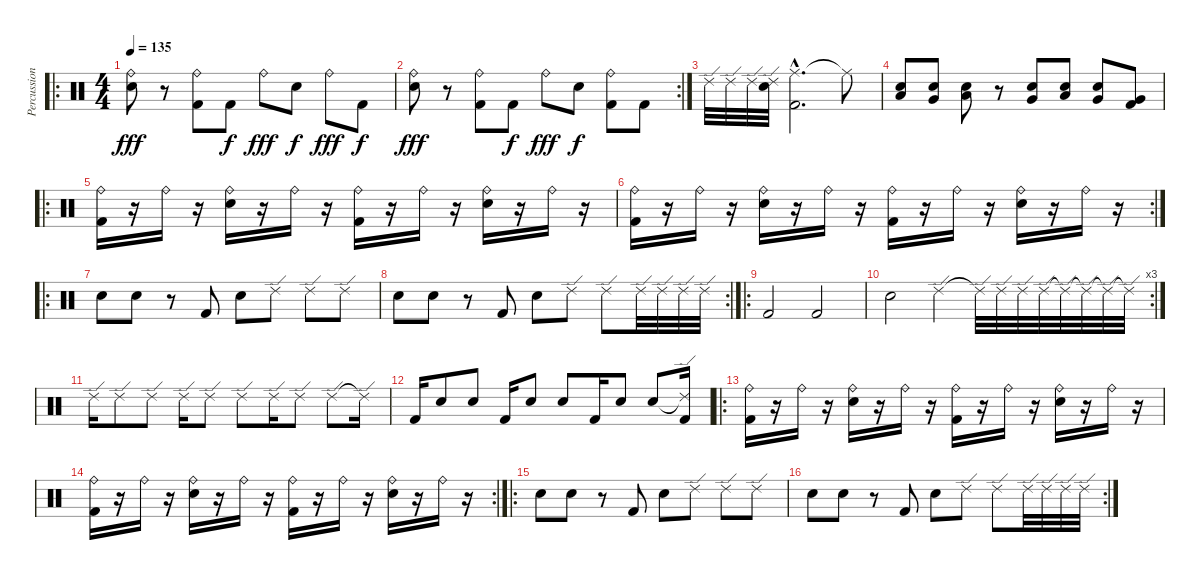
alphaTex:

\track ("Percussion" "Percussion") {instrument percussion}
\staff {score}
\articulation defaults
\ro
\ts (4 4)
\tempo 135
\clef neutral
\ks c
("Ride (bell)" "Snare (hit) 2").8{dy fff} r.8 ("Ride (bell)" "Kick (hit) 2").8 "Kick (hit) 2".8{dy f} "Ride (bell)".8{dy fff} "Snare (hit) 2".8{dy f} "Ride (bell)".8{dy fff} "Kick (hit) 2".8{dy f} |
\rc 2
("Ride (bell)" "Snare (hit) 2").8{dy fff} r.8 ("Ride (bell)" "Kick (hit) 2").8 "Kick (hit) 2".8{dy f} "Ride (bell)".8{dy fff} "Snare (hit) 2".8{dy f} ("Ride (bell)" "Kick (hit) 2").8 "Kick (hit) 2".8 |
"Ride (edge) 2".32 "Ride (edge) 2".32 "Ride (edge) 2".32 ("Ride (edge) 2" "Snare (hit) 2").32 ("Ride (middle)"{hac} "Kick (hit) 2"{hac}).2{d} "Ride (middle)"{t}.8 |
("Low Floor Tom (hit)" "Snare (hit) 2").8 ("Very Low Tom (hit)" "Snare (hit) 2").8 ("Low Floor Tom (hit)" "Snare (hit) 2").8 r.8 ("Very Low Tom (hit)" "Snare (hit) 2").8 ("Low Floor Tom (hit)" "Snare (hit) 2").8 ("Very Low Tom (hit)" "Snare (hit) 2").8 ("Very Low Tom (hit)" "Kick (hit) 2").8 |
\ro
("Ride (bell)" "Kick (hit) 2").16 r.16 "Ride (bell)".16 r.16 ("Ride (bell)" "Snare (hit) 2").16 r.16 "Ride (bell)".16 r.16 ("Ride (bell)" "Kick (hit) 2").16 r.16 "Ride (bell)".16 r.16 ("Ride (bell)" "Snare (hit) 2").16 r.16 "Ride (bell)".16 r.16 |
\rc 2
("Ride (bell)" "Kick (hit) 2").16 r.16 "Ride (bell)".16 r.16 ("Ride (bell)" "Snare (hit) 2").16 r.16 "Ride (bell)".16 r.16 ("Ride (bell)" "Kick (hit) 2").16 r.16 "Ride (bell)".16 r.16 ("Ride (bell)" "Snare (hit) 2").16 r.16 "Ride (bell)".16 r.16 |
\ro "Snare (hit) 2".8 "Snare (hit) 2".8
r.8 "Kick (hit) 2".8 "Snare (hit) 2".8 "Ride (edge) 2".8 "Ride (edge) 2".8 "Ride (edge) 2".8 |
\rc 2 "Snare (hit) 2".8 "Snare (hit) 2".8
r.8 "Kick (hit) 2".8 "Snare (hit) 2".8 "Ride (edge) 2".8 "Ride (edge) 2".8 "Ride (edge) 2".32 "Ride (edge) 2".32 "Ride (edge) 2".32 "Ride (edge) 2".32 |
\ro "Kick (hit) 2".2 "Kick (hit) 2".2
|
\rc 3 "Snare (hit) 2".2 "Ride (edge) 2".4 "Ride (edge) 2"{t}.32 "Ride (edge) 2".32 "Ride (edge) 2".32 "Ride (edge) 2".32 "Ride (edge) 2"{t}.32 "Ride (edge) 2"{t}.32 "Ride (edge) 2"{t}.32 "Ride (edge) 2"{t}.32
|
"Ride (edge) 2".16 "Ride (edge) 2".8 "Ride (edge) 2".8 "Ride (edge) 2".16 "Ride (edge) 2".8 "Ride (edge) 2".8 "Ride (edge) 2".16 "Ride (edge) 2".8 "Ride (edge) 2".8 "Ride (edge) 2"{t}.16 |
"Kick (hit) 2".16 "Snare (hit) 2".8 "Snare (hit) 2".8 "Kick (hit) 2".16 "Snare (hit) 2".8 "Snare (hit) 2".8 "Kick (hit) 2".16 "Snare (hit) 2".8 "Snare (hit) 2".8 ("Ride (edge) 2"{t} "Kick (hit) 2").16 |
\ro
("Ride (bell)" "Kick (hit) 2").16 r.16 "Ride (bell)".16 r.16 ("Ride (bell)" "Snare (hit) 2").16 r.16 "Ride (bell)".16 r.16 ("Ride (bell)" "Kick (hit) 2").16 r.16 "Ride (bell)".16 r.16 ("Ride (bell)" "Snare (hit) 2").16 r.16 "Ride (bell)".16 r.16 |
\rc 2
("Ride (bell)" "Kick (hit) 2").16 r.16 "Ride (bell)".16 r.16 ("Ride (bell)" "Snare (hit) 2").16 r.16 "Ride (bell)".16 r.16 ("Ride (bell)" "Kick (hit) 2").16 r.16 "Ride (bell)".16 r.16 ("Ride (bell)" "Snare (hit) 2").16 r.16 "Ride (bell)".16 r.16 |
\ro "Snare (hit) 2".8 "Snare (hit) 2".8
r.8 "Kick (hit) 2".8 "Snare (hit) 2".8 "Ride (edge) 2".8 "Ride (edge) 2".8 "Ride (edge) 2".8 |
\rc 2 "Snare (hit) 2".8 "Snare (hit) 2".8
r.8 "Kick (hit) 2".8 "Snare (hit) 2".8 "Ride (edge) 2".8 "Ride (edge) 2".8 "Ride (edge) 2".32 "Ride (edge) 2".32 "Ride (edge) 2".32 "Ride (edge) 2".32
